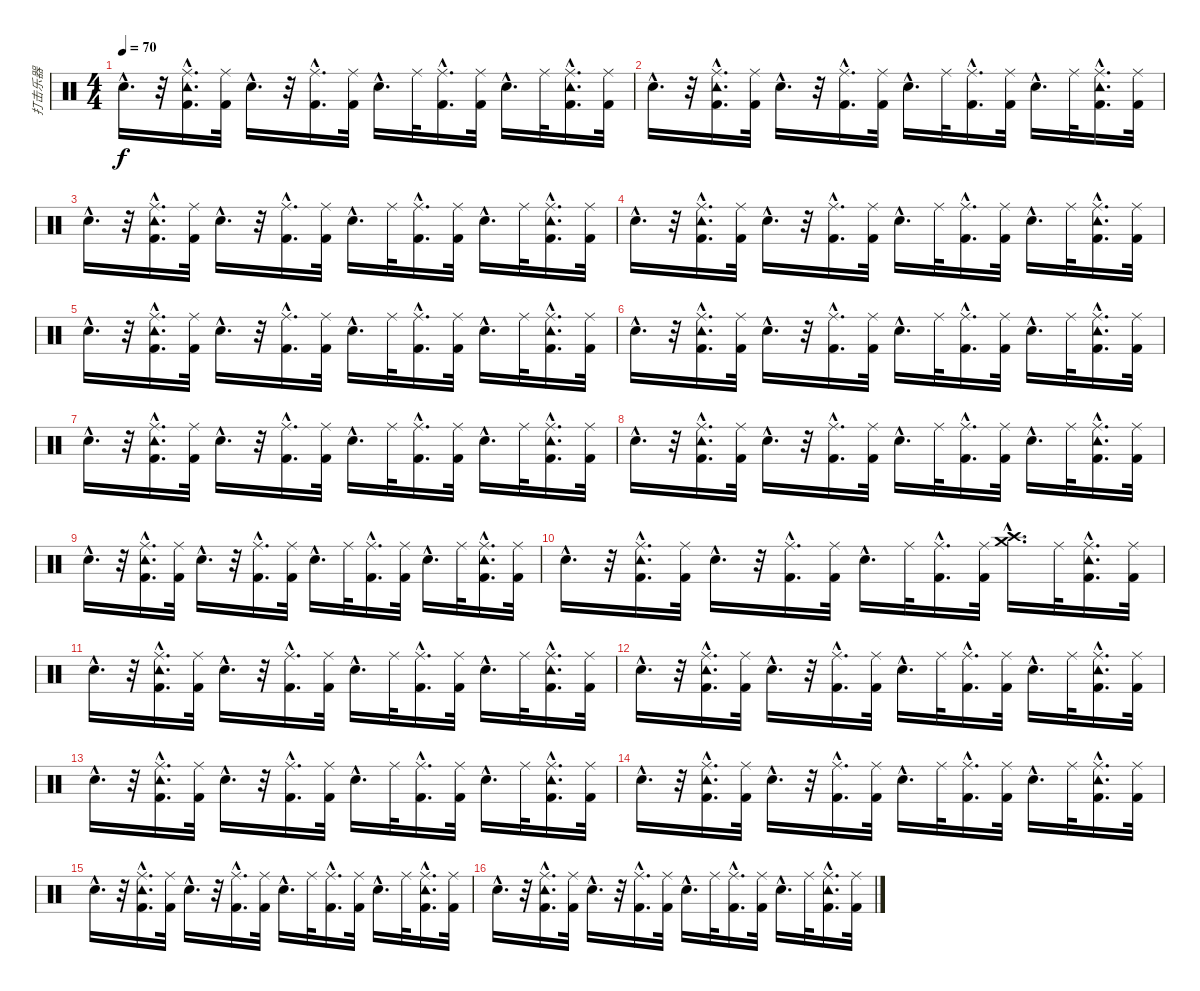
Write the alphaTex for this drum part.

\track ("打击乐器" "打击乐器") {instrument percussion}
\staff {score}
\articulation defaults
\ts (4 4)
\tempo 70
\clef neutral
\ks c "Electric Snare (hit)"{hac}.16{d dy f}
r.32 ("Tambourine (hit)"{hac} "Ride (middle)"{hac} "Kick (hit) 2"{hac}).16{d} ("Ride (middle)" "Kick (hit) 2").32 "Snare (hit) 2"{hac}.16{d} r.32 ("Ride (middle)"{hac} "Kick (hit) 2"{hac}).16{d} ("Ride (middle)" "Kick (hit) 2").32 "Snare (hit) 2"{hac}.16{d} "Ride (middle)".32 ("Ride (middle)"{hac} "Kick (hit) 2"{hac}).16{d} ("Ride (middle)" "Kick (hit) 2").32 "Snare (hit) 2"{hac}.16{d} "Ride (middle)".32 ("Tambourine (hit)"{hac} "Ride (middle)"{hac} "Kick (hit) 2"{hac}).16{d} ("Ride (middle)" "Kick (hit) 2").32 |
"Electric Snare (hit)"{hac}.16{d} r.32 ("Tambourine (hit)"{hac} "Ride (middle)"{hac} "Kick (hit) 2"{hac}).16{d} ("Ride (middle)" "Kick (hit) 2").32 "Snare (hit) 2"{hac}.16{d} r.32 ("Ride (middle)"{hac} "Kick (hit) 2"{hac}).16{d} ("Ride (middle)" "Kick (hit) 2").32 "Snare (hit) 2"{hac}.16{d} "Ride (middle)".32 ("Ride (middle)"{hac} "Kick (hit) 2"{hac}).16{d} ("Ride (middle)" "Kick (hit) 2").32 "Snare (hit) 2"{hac}.16{d} "Ride (middle)".32 ("Tambourine (hit)"{hac} "Ride (middle)"{hac} "Kick (hit) 2"{hac}).16{d} ("Ride (middle)" "Kick (hit) 2").32 |
"Electric Snare (hit)"{hac}.16{d} r.32 ("Tambourine (hit)"{hac} "Ride (middle)"{hac} "Kick (hit) 2"{hac}).16{d} ("Ride (middle)" "Kick (hit) 2").32 "Snare (hit) 2"{hac}.16{d} r.32 ("Ride (middle)"{hac} "Kick (hit) 2"{hac}).16{d} ("Ride (middle)" "Kick (hit) 2").32 "Snare (hit) 2"{hac}.16{d} "Ride (middle)".32 ("Ride (middle)"{hac} "Kick (hit) 2"{hac}).16{d} ("Ride (middle)" "Kick (hit) 2").32 "Snare (hit) 2"{hac}.16{d} "Ride (middle)".32 ("Tambourine (hit)"{hac} "Ride (middle)"{hac} "Kick (hit) 2"{hac}).16{d} ("Ride (middle)" "Kick (hit) 2").32 |
"Electric Snare (hit)"{hac}.16{d} r.32 ("Tambourine (hit)"{hac} "Ride (middle)"{hac} "Kick (hit) 2"{hac}).16{d} ("Ride (middle)" "Kick (hit) 2").32 "Snare (hit) 2"{hac}.16{d} r.32 ("Ride (middle)"{hac} "Kick (hit) 2"{hac}).16{d} ("Ride (middle)" "Kick (hit) 2").32 "Snare (hit) 2"{hac}.16{d} "Ride (middle)".32 ("Ride (middle)"{hac} "Kick (hit) 2"{hac}).16{d} ("Ride (middle)" "Kick (hit) 2").32 "Snare (hit) 2"{hac}.16{d} "Ride (middle)".32 ("Tambourine (hit)"{hac} "Ride (middle)"{hac} "Kick (hit) 2"{hac}).16{d} ("Ride (middle)" "Kick (hit) 2").32 |
"Electric Snare (hit)"{hac}.16{d} r.32 ("Tambourine (hit)"{hac} "Ride (middle)"{hac} "Kick (hit) 2"{hac}).16{d} ("Ride (middle)" "Kick (hit) 2").32 "Snare (hit) 2"{hac}.16{d} r.32 ("Ride (middle)"{hac} "Kick (hit) 2"{hac}).16{d} ("Ride (middle)" "Kick (hit) 2").32 "Snare (hit) 2"{hac}.16{d} "Ride (middle)".32 ("Ride (middle)"{hac} "Kick (hit) 2"{hac}).16{d} ("Ride (middle)" "Kick (hit) 2").32 "Snare (hit) 2"{hac}.16{d} "Ride (middle)".32 ("Tambourine (hit)"{hac} "Ride (middle)"{hac} "Kick (hit) 2"{hac}).16{d} ("Ride (middle)" "Kick (hit) 2").32 |
"Electric Snare (hit)"{hac}.16{d} r.32 ("Tambourine (hit)"{hac} "Ride (middle)"{hac} "Kick (hit) 2"{hac}).16{d} ("Ride (middle)" "Kick (hit) 2").32 "Snare (hit) 2"{hac}.16{d} r.32 ("Ride (middle)"{hac} "Kick (hit) 2"{hac}).16{d} ("Ride (middle)" "Kick (hit) 2").32 "Snare (hit) 2"{hac}.16{d} "Ride (middle)".32 ("Ride (middle)"{hac} "Kick (hit) 2"{hac}).16{d} ("Ride (middle)" "Kick (hit) 2").32 "Snare (hit) 2"{hac}.16{d} "Ride (middle)".32 ("Tambourine (hit)"{hac} "Ride (middle)"{hac} "Kick (hit) 2"{hac}).16{d} ("Ride (middle)" "Kick (hit) 2").32 |
"Electric Snare (hit)"{hac}.16{d} r.32 ("Tambourine (hit)"{hac} "Ride (middle)"{hac} "Kick (hit) 2"{hac}).16{d} ("Ride (middle)" "Kick (hit) 2").32 "Snare (hit) 2"{hac}.16{d} r.32 ("Ride (middle)"{hac} "Kick (hit) 2"{hac}).16{d} ("Ride (middle)" "Kick (hit) 2").32 "Snare (hit) 2"{hac}.16{d} "Ride (middle)".32 ("Ride (middle)"{hac} "Kick (hit) 2"{hac}).16{d} ("Ride (middle)" "Kick (hit) 2").32 "Snare (hit) 2"{hac}.16{d} "Ride (middle)".32 ("Tambourine (hit)"{hac} "Ride (middle)"{hac} "Kick (hit) 2"{hac}).16{d} ("Ride (middle)" "Kick (hit) 2").32 |
"Electric Snare (hit)"{hac}.16{d} r.32 ("Tambourine (hit)"{hac} "Ride (middle)"{hac} "Kick (hit) 2"{hac}).16{d} ("Ride (middle)" "Kick (hit) 2").32 "Snare (hit) 2"{hac}.16{d} r.32 ("Ride (middle)"{hac} "Kick (hit) 2"{hac}).16{d} ("Ride (middle)" "Kick (hit) 2").32 "Snare (hit) 2"{hac}.16{d} "Ride (middle)".32 ("Ride (middle)"{hac} "Kick (hit) 2"{hac}).16{d} ("Ride (middle)" "Kick (hit) 2").32 "Snare (hit) 2"{hac}.16{d} "Ride (middle)".32 ("Tambourine (hit)"{hac} "Ride (middle)"{hac} "Kick (hit) 2"{hac}).16{d} ("Ride (middle)" "Kick (hit) 2").32 |
"Electric Snare (hit)"{hac}.16{d} r.32 ("Tambourine (hit)"{hac} "Ride (middle)"{hac} "Kick (hit) 2"{hac}).16{d} ("Ride (middle)" "Kick (hit) 2").32 "Snare (hit) 2"{hac}.16{d} r.32 ("Ride (middle)"{hac} "Kick (hit) 2"{hac}).16{d} ("Ride (middle)" "Kick (hit) 2").32 "Snare (hit) 2"{hac}.16{d} "Ride (middle)".32 ("Ride (middle)"{hac} "Kick (hit) 2"{hac}).16{d} ("Ride (middle)" "Kick (hit) 2").32 "Snare (hit) 2"{hac}.16{d} "Ride (middle)".32 ("Tambourine (hit)"{hac} "Ride (middle)"{hac} "Kick (hit) 2"{hac}).16{d} ("Ride (middle)" "Kick (hit) 2").32 |
"Electric Snare (hit)"{hac}.16{d} r.32 ("Tambourine (hit)"{hac} "Ride (middle)"{hac} "Kick (hit) 2"{hac}).16{d} ("Ride (middle)" "Kick (hit) 2").32 "Snare (hit) 2"{hac}.16{d} r.32 ("Ride (middle)"{hac} "Kick (hit) 2"{hac}).16{d} ("Ride (middle)" "Kick (hit) 2").32 "Snare (hit) 2"{hac}.16{d} "Ride (middle)".32 ("Ride (middle)"{hac} "Kick (hit) 2"{hac}).16{d} ("Ride (middle)" "Kick (hit) 2").32 ("Crash medium (hit)"{hac} "Crash high (hit)"{hac}).16{d} "Ride (middle)".32 ("Tambourine (hit)"{hac} "Ride (middle)"{hac} "Kick (hit) 2"{hac}).16{d} ("Ride (middle)" "Kick (hit) 2").32 |
"Electric Snare (hit)"{hac}.16{d} r.32 ("Tambourine (hit)"{hac} "Ride (middle)"{hac} "Kick (hit) 2"{hac}).16{d} ("Ride (middle)" "Kick (hit) 2").32 "Snare (hit) 2"{hac}.16{d} r.32 ("Ride (middle)"{hac} "Kick (hit) 2"{hac}).16{d} ("Ride (middle)" "Kick (hit) 2").32 "Snare (hit) 2"{hac}.16{d} "Ride (middle)".32 ("Ride (middle)"{hac} "Kick (hit) 2"{hac}).16{d} ("Ride (middle)" "Kick (hit) 2").32 "Snare (hit) 2"{hac}.16{d} "Ride (middle)".32 ("Tambourine (hit)"{hac} "Ride (middle)"{hac} "Kick (hit) 2"{hac}).16{d} ("Ride (middle)" "Kick (hit) 2").32 |
"Electric Snare (hit)"{hac}.16{d} r.32 ("Tambourine (hit)"{hac} "Ride (middle)"{hac} "Kick (hit) 2"{hac}).16{d} ("Ride (middle)" "Kick (hit) 2").32 "Snare (hit) 2"{hac}.16{d} r.32 ("Ride (middle)"{hac} "Kick (hit) 2"{hac}).16{d} ("Ride (middle)" "Kick (hit) 2").32 "Snare (hit) 2"{hac}.16{d} "Ride (middle)".32 ("Ride (middle)"{hac} "Kick (hit) 2"{hac}).16{d} ("Ride (middle)" "Kick (hit) 2").32 "Snare (hit) 2"{hac}.16{d} "Ride (middle)".32 ("Tambourine (hit)"{hac} "Ride (middle)"{hac} "Kick (hit) 2"{hac}).16{d} ("Ride (middle)" "Kick (hit) 2").32 |
"Electric Snare (hit)"{hac}.16{d} r.32 ("Tambourine (hit)"{hac} "Ride (middle)"{hac} "Kick (hit) 2"{hac}).16{d} ("Ride (middle)" "Kick (hit) 2").32 "Snare (hit) 2"{hac}.16{d} r.32 ("Ride (middle)"{hac} "Kick (hit) 2"{hac}).16{d} ("Ride (middle)" "Kick (hit) 2").32 "Snare (hit) 2"{hac}.16{d} "Ride (middle)".32 ("Ride (middle)"{hac} "Kick (hit) 2"{hac}).16{d} ("Ride (middle)" "Kick (hit) 2").32 "Snare (hit) 2"{hac}.16{d} "Ride (middle)".32 ("Tambourine (hit)"{hac} "Ride (middle)"{hac} "Kick (hit) 2"{hac}).16{d} ("Ride (middle)" "Kick (hit) 2").32 |
"Electric Snare (hit)"{hac}.16{d} r.32 ("Tambourine (hit)"{hac} "Ride (middle)"{hac} "Kick (hit) 2"{hac}).16{d} ("Ride (middle)" "Kick (hit) 2").32 "Snare (hit) 2"{hac}.16{d} r.32 ("Ride (middle)"{hac} "Kick (hit) 2"{hac}).16{d} ("Ride (middle)" "Kick (hit) 2").32 "Snare (hit) 2"{hac}.16{d} "Ride (middle)".32 ("Ride (middle)"{hac} "Kick (hit) 2"{hac}).16{d} ("Ride (middle)" "Kick (hit) 2").32 "Snare (hit) 2"{hac}.16{d} "Ride (middle)".32 ("Tambourine (hit)"{hac} "Ride (middle)"{hac} "Kick (hit) 2"{hac}).16{d} ("Ride (middle)" "Kick (hit) 2").32 |
"Electric Snare (hit)"{hac}.16{d} r.32 ("Tambourine (hit)"{hac} "Ride (middle)"{hac} "Kick (hit) 2"{hac}).16{d} ("Ride (middle)" "Kick (hit) 2").32 "Snare (hit) 2"{hac}.16{d} r.32 ("Ride (middle)"{hac} "Kick (hit) 2"{hac}).16{d} ("Ride (middle)" "Kick (hit) 2").32 "Snare (hit) 2"{hac}.16{d} "Ride (middle)".32 ("Ride (middle)"{hac} "Kick (hit) 2"{hac}).16{d} ("Ride (middle)" "Kick (hit) 2").32 "Snare (hit) 2"{hac}.16{d} "Ride (middle)".32 ("Tambourine (hit)"{hac} "Ride (middle)"{hac} "Kick (hit) 2"{hac}).16{d} ("Ride (middle)" "Kick (hit) 2").32 |
"Electric Snare (hit)"{hac}.16{d} r.32 ("Tambourine (hit)"{hac} "Ride (middle)"{hac} "Kick (hit) 2"{hac}).16{d} ("Ride (middle)" "Kick (hit) 2").32 "Snare (hit) 2"{hac}.16{d} r.32 ("Ride (middle)"{hac} "Kick (hit) 2"{hac}).16{d} ("Ride (middle)" "Kick (hit) 2").32 "Snare (hit) 2"{hac}.16{d} "Ride (middle)".32 ("Ride (middle)"{hac} "Kick (hit) 2"{hac}).16{d} ("Ride (middle)" "Kick (hit) 2").32 "Snare (hit) 2"{hac}.16{d} "Ride (middle)".32 ("Tambourine (hit)"{hac} "Ride (middle)"{hac} "Kick (hit) 2"{hac}).16{d} ("Ride (middle)" "Kick (hit) 2").32
